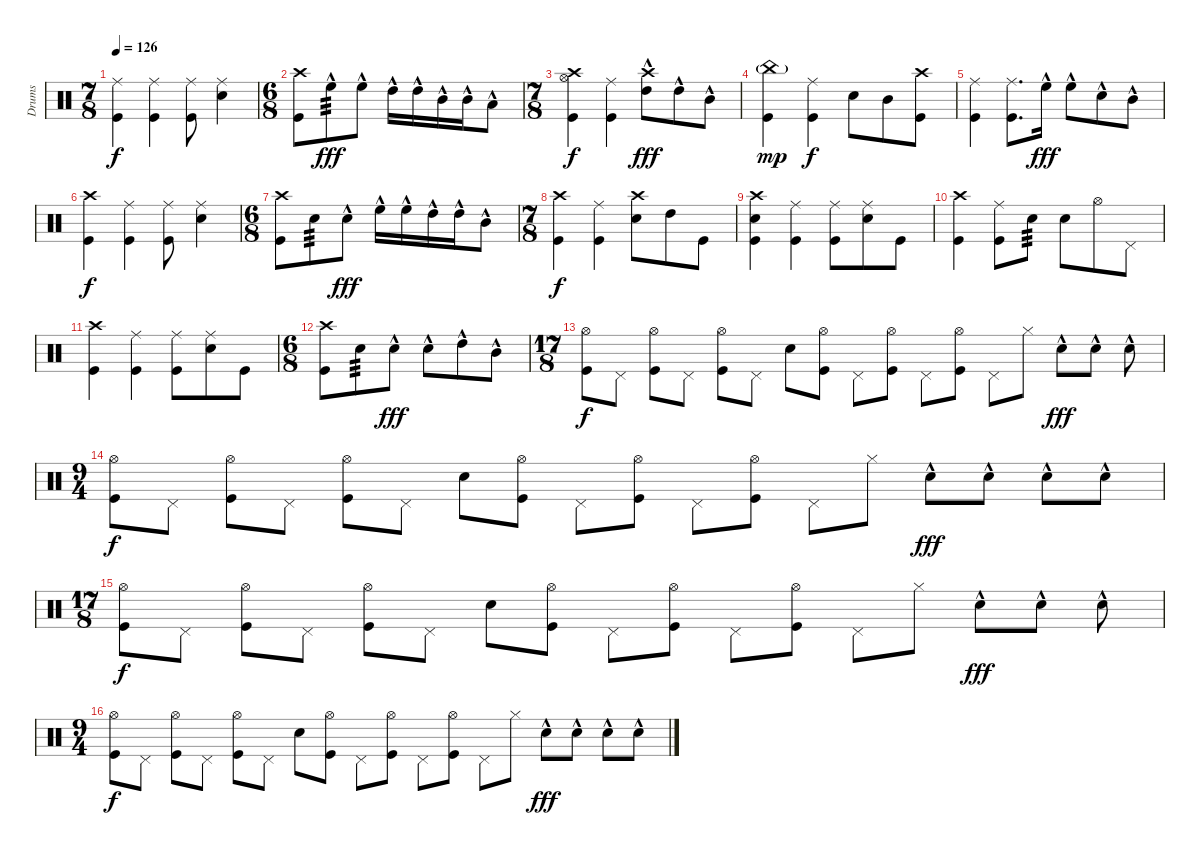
\track ("Drums" "Drums") {instrument percussion}
\staff {score}
\articulation defaults
\ts (7 8)
\tempo 126
\clef neutral
\ks c
("Ride (middle)" "Kick (hit)").4{dy f} ("Ride (middle)" "Kick (hit)").4 ("Ride (middle)" "Kick (hit)").8 ("Ride (middle)" "Snare (hit) 2").4 |
\ts (6 8)
("Crash high (hit)" "Kick (hit)").8 "High Floor Tom (hit)"{hac}.8{tp 3 dy fff} "High Floor Tom (hit)"{hac}.8 "High Tom (hit)"{hac}.16 "High Tom (hit)"{hac}.16 "Mid Tom (hit)"{hac}.16 "Mid Tom (hit)"{hac}.16 "Low Tom (hit)"{hac}.8 |
\ts (7 8)
("Crash high (hit)" "Hi-Hat (open)" "Kick (hit)").4{dy f} ("Ride (middle)" "Kick (hit)").4 ("Crash high (hit)" "High Tom (hit)"{hac}).8{dy fff} "High Tom (hit)"{hac}.8 "Mid Tom (hit)"{hac}.8 |
("China (hit)"{g} "Kick (hit)").4{dy mp} ("Ride (middle)" "Kick (hit)").4{dy f} "Snare (hit) 2".8 "Mid Tom (hit)".8 ("Crash high (hit)" "Kick (hit)").8 |
("Ride (middle)" "Kick (hit)").4 ("Ride (middle)" "Kick (hit)").8{d} "High Floor Tom (hit)"{hac}.16{dy fff} "High Floor Tom (hit)"{hac}.8 "Snare (hit) 2"{hac}.8 "Mid Tom (hit)"{hac}.8 |
("Crash high (hit)" "Kick (hit)").4{dy f} ("Ride (middle)" "Kick (hit)").4 ("Ride (middle)" "Kick (hit)").8 ("Ride (middle)" "Snare (hit) 2").4 |
\ts (6 8)
("Crash high (hit)" "Kick (hit)").8 "Snare (hit) 2".8{tp 3} "Snare (hit) 2"{hac}.8{dy fff} "High Floor Tom (hit)"{hac}.16 "High Floor Tom (hit)"{hac}.16 "High Tom (hit)"{hac}.16 "High Tom (hit)"{hac}.16 "Mid Tom (hit)"{hac}.8 |
\ts (7 8)
("Crash high (hit)" "Kick (hit)").4{dy f} ("Ride (middle)" "Kick (hit)").4 ("Crash high (hit)" "Snare (hit) 2").8 "High Tom (hit)".8 "Kick (hit)".8 |
("Crash high (hit)" "Snare (hit) 2" "Kick (hit)").4 ("Ride (middle)" "Kick (hit)").4 ("Ride (middle)" "Kick (hit)").8 ("Ride (middle)" "Snare (hit) 2").8 "Kick (hit)".8 |
("Crash high (hit)" "Kick (hit)").4 ("Ride (middle)" "Kick (hit)").8 "Snare (hit) 2".8{tp 3} "Snare (hit) 2".8 "Hi-Hat (open)".8 "Pedal Hi-Hat (hit)".8 |
("Crash high (hit)" "Kick (hit)").4 ("Ride (middle)" "Kick (hit)").4 ("Ride (middle)" "Kick (hit)").8 ("Ride (middle)" "Snare (hit) 2").8 "Kick (hit)".8 |
\ts (6 8)
("Crash high (hit)" "Kick (hit)").8 "Snare (hit) 2".8{tp 3} "Snare (hit) 2"{hac}.8{dy fff} "Snare (hit) 2"{hac}.8 "High Tom (hit)"{hac}.8 "Mid Tom (hit)"{hac}.8 |
\ts (17 8)
("Hi-Hat (open)" "Kick (hit)").8{dy f} "Pedal Hi-Hat (hit)".8 ("Hi-Hat (open)" "Kick (hit)").8 "Pedal Hi-Hat (hit)".8 ("Hi-Hat (open)" "Kick (hit)").8 "Pedal Hi-Hat (hit)".8 "Snare (hit) 2".8 ("Hi-Hat (open)" "Kick (hit)").8 "Pedal Hi-Hat (hit)".8 ("Hi-Hat (open)" "Kick (hit)").8 "Pedal Hi-Hat (hit)".8 ("Hi-Hat (open)" "Kick (hit)").8 "Pedal Hi-Hat (hit)".8 "Hi-Hat (closed)".8 "Snare (hit) 2"{hac}.8{dy fff} "Snare (hit) 2"{hac}.8 "Snare (hit) 2"{hac}.8 |
\ts (9 4)
("Hi-Hat (open)" "Kick (hit)").8{dy f} "Pedal Hi-Hat (hit)".8 ("Hi-Hat (open)" "Kick (hit)").8 "Pedal Hi-Hat (hit)".8 ("Hi-Hat (open)" "Kick (hit)").8 "Pedal Hi-Hat (hit)".8 "Snare (hit) 2".8 ("Hi-Hat (open)" "Kick (hit)").8 "Pedal Hi-Hat (hit)".8 ("Hi-Hat (open)" "Kick (hit)").8 "Pedal Hi-Hat (hit)".8 ("Hi-Hat (open)" "Kick (hit)").8 "Pedal Hi-Hat (hit)".8 "Hi-Hat (closed)".8 "Snare (hit) 2"{hac}.8{dy fff} "Snare (hit) 2"{hac}.8 "Snare (hit) 2"{hac}.8 "Snare (hit) 2"{hac}.8 |
\ts (17 8)
("Hi-Hat (open)" "Kick (hit)").8{dy f} "Pedal Hi-Hat (hit)".8 ("Hi-Hat (open)" "Kick (hit)").8 "Pedal Hi-Hat (hit)".8 ("Hi-Hat (open)" "Kick (hit)").8 "Pedal Hi-Hat (hit)".8 "Snare (hit) 2".8 ("Hi-Hat (open)" "Kick (hit)").8 "Pedal Hi-Hat (hit)".8 ("Hi-Hat (open)" "Kick (hit)").8 "Pedal Hi-Hat (hit)".8 ("Hi-Hat (open)" "Kick (hit)").8 "Pedal Hi-Hat (hit)".8 "Hi-Hat (closed)".8 "Snare (hit) 2"{hac}.8{dy fff} "Snare (hit) 2"{hac}.8 "Snare (hit) 2"{hac}.8 |
\ts (9 4)
("Hi-Hat (open)" "Kick (hit)").8{dy f} "Pedal Hi-Hat (hit)".8 ("Hi-Hat (open)" "Kick (hit)").8 "Pedal Hi-Hat (hit)".8 ("Hi-Hat (open)" "Kick (hit)").8 "Pedal Hi-Hat (hit)".8 "Snare (hit) 2".8 ("Hi-Hat (open)" "Kick (hit)").8 "Pedal Hi-Hat (hit)".8 ("Hi-Hat (open)" "Kick (hit)").8 "Pedal Hi-Hat (hit)".8 ("Hi-Hat (open)" "Kick (hit)").8 "Pedal Hi-Hat (hit)".8 "Hi-Hat (closed)".8 "Snare (hit) 2"{hac}.8{dy fff} "Snare (hit) 2"{hac}.8 "Snare (hit) 2"{hac}.8 "Snare (hit) 2"{hac}.8
